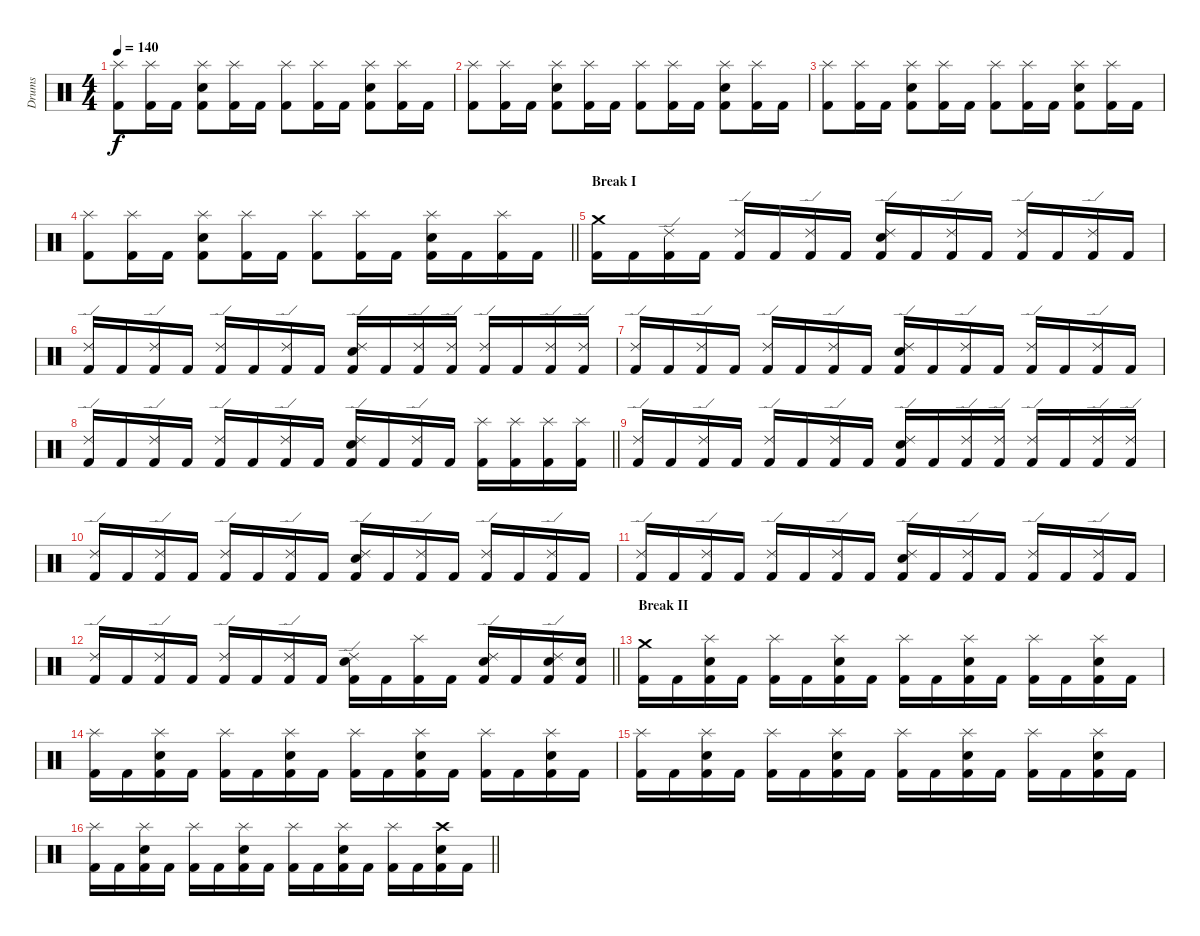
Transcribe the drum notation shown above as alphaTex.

\track ("Drums" "Drums") {instrument percussion}
\staff {score}
\articulation defaults
\ts (4 4)
\section ("" "")
\tempo 140
\clef neutral
\ks c
("Kick (hit) 2" "Splash (hit)").8{dy f} ("Kick (hit) 2" "Splash (hit)").16 "Kick (hit) 2".16 ("Kick (hit) 2" "Snare (hit) 2" "Splash (hit)").8 ("Kick (hit) 2" "Splash (hit)").16 "Kick (hit) 2".16 ("Kick (hit) 2" "Splash (hit)").8 ("Kick (hit) 2" "Splash (hit)").16 "Kick (hit) 2".16 ("Kick (hit) 2" "Snare (hit) 2" "Splash (hit)").8 ("Kick (hit) 2" "Splash (hit)").16 "Kick (hit) 2".16 |
("Kick (hit) 2" "Splash (hit)").8 ("Kick (hit) 2" "Splash (hit)").16 "Kick (hit) 2".16 ("Kick (hit) 2" "Snare (hit) 2" "Splash (hit)").8 ("Kick (hit) 2" "Splash (hit)").16 "Kick (hit) 2".16 ("Kick (hit) 2" "Splash (hit)").8 ("Kick (hit) 2" "Splash (hit)").16 "Kick (hit) 2".16 ("Kick (hit) 2" "Snare (hit) 2" "Splash (hit)").8 ("Kick (hit) 2" "Splash (hit)").16 "Kick (hit) 2".16 |
("Kick (hit) 2" "Splash (hit)").8 ("Kick (hit) 2" "Splash (hit)").16 "Kick (hit) 2".16 ("Kick (hit) 2" "Snare (hit) 2" "Splash (hit)").8 ("Kick (hit) 2" "Splash (hit)").16 "Kick (hit) 2".16 ("Kick (hit) 2" "Splash (hit)").8 ("Kick (hit) 2" "Splash (hit)").16 "Kick (hit) 2".16 ("Kick (hit) 2" "Snare (hit) 2" "Splash (hit)").8 ("Kick (hit) 2" "Splash (hit)").16 "Kick (hit) 2".16 |
\barLineRight lightlight
("Kick (hit) 2" "Splash (hit)").8 ("Kick (hit) 2" "Splash (hit)").16 "Kick (hit) 2".16 ("Kick (hit) 2" "Snare (hit) 2" "Splash (hit)").8 ("Kick (hit) 2" "Splash (hit)").16 "Kick (hit) 2".16 ("Kick (hit) 2" "Splash (hit)").8 ("Kick (hit) 2" "Splash (hit)").16 "Kick (hit) 2".16 ("Kick (hit) 2" "Snare (hit) 2" "Splash (hit)").16 "Kick (hit) 2".16 ("Kick (hit) 2" "Splash (hit)").16 "Kick (hit) 2".16 |
\section ("" "Break I")
("Kick (hit) 2" "Crash medium (hit)").16 "Kick (hit) 2".16 ("Kick (hit) 2" "Ride (edge) 2").16 "Kick (hit) 2".16 ("Kick (hit) 2" "Ride (edge) 2").16 "Kick (hit) 2".16 ("Kick (hit) 2" "Ride (edge) 2").16 "Kick (hit) 2".16 ("Kick (hit) 2" "Snare (hit) 2" "Ride (edge) 2").16 "Kick (hit) 2".16 ("Kick (hit) 2" "Ride (edge) 2").16 "Kick (hit) 2".16 ("Kick (hit) 2" "Ride (edge) 2").16 "Kick (hit) 2".16 ("Kick (hit) 2" "Ride (edge) 2").16 "Kick (hit) 2".16 |
("Kick (hit) 2" "Ride (edge) 2").16 "Kick (hit) 2".16 ("Kick (hit) 2" "Ride (edge) 2").16 "Kick (hit) 2".16 ("Kick (hit) 2" "Ride (edge) 2").16 "Kick (hit) 2".16 ("Kick (hit) 2" "Ride (edge) 2").16 "Kick (hit) 2".16 ("Kick (hit) 2" "Snare (hit) 2" "Ride (edge) 2").16 "Kick (hit) 2".16 ("Kick (hit) 2" "Ride (edge) 2").16 ("Kick (hit) 2" "Ride (edge) 2").16 ("Kick (hit) 2" "Ride (edge) 2").16 "Kick (hit) 2".16 ("Kick (hit) 2" "Ride (edge) 2").16 ("Kick (hit) 2" "Ride (edge) 2").16 |
("Kick (hit) 2" "Ride (edge) 2").16 "Kick (hit) 2".16 ("Kick (hit) 2" "Ride (edge) 2").16 "Kick (hit) 2".16 ("Kick (hit) 2" "Ride (edge) 2").16 "Kick (hit) 2".16 ("Kick (hit) 2" "Ride (edge) 2").16 "Kick (hit) 2".16 ("Kick (hit) 2" "Snare (hit) 2" "Ride (edge) 2").16 "Kick (hit) 2".16 ("Kick (hit) 2" "Ride (edge) 2").16 "Kick (hit) 2".16 ("Kick (hit) 2" "Ride (edge) 2").16 "Kick (hit) 2".16 ("Kick (hit) 2" "Ride (edge) 2").16 "Kick (hit) 2".16 |
\barLineRight lightlight
("Kick (hit) 2" "Ride (edge) 2").16 "Kick (hit) 2".16 ("Kick (hit) 2" "Ride (edge) 2").16 "Kick (hit) 2".16 ("Kick (hit) 2" "Ride (edge) 2").16 "Kick (hit) 2".16 ("Kick (hit) 2" "Ride (edge) 2").16 "Kick (hit) 2".16 ("Kick (hit) 2" "Snare (hit) 2" "Ride (edge) 2").16 "Kick (hit) 2".16 ("Kick (hit) 2" "Ride (edge) 2").16 "Kick (hit) 2".16 ("Kick (hit) 2" "Splash (hit)").16 ("Kick (hit) 2" "Splash (hit)").16 ("Kick (hit) 2" "Splash (hit)").16 ("Kick (hit) 2" "Splash (hit)").16 |
\section ("" "")
("Kick (hit) 2" "Ride (edge) 2").16 "Kick (hit) 2".16 ("Kick (hit) 2" "Ride (edge) 2").16 "Kick (hit) 2".16 ("Kick (hit) 2" "Ride (edge) 2").16 "Kick (hit) 2".16 ("Kick (hit) 2" "Ride (edge) 2").16 "Kick (hit) 2".16 ("Kick (hit) 2" "Snare (hit) 2" "Ride (edge) 2").16 "Kick (hit) 2".16 ("Kick (hit) 2" "Ride (edge) 2").16 ("Kick (hit) 2" "Ride (edge) 2").16 ("Kick (hit) 2" "Ride (edge) 2").16 "Kick (hit) 2".16 ("Kick (hit) 2" "Ride (edge) 2").16 ("Kick (hit) 2" "Ride (edge) 2").16 |
("Kick (hit) 2" "Ride (edge) 2").16 "Kick (hit) 2".16 ("Kick (hit) 2" "Ride (edge) 2").16 "Kick (hit) 2".16 ("Kick (hit) 2" "Ride (edge) 2").16 "Kick (hit) 2".16 ("Kick (hit) 2" "Ride (edge) 2").16 "Kick (hit) 2".16 ("Kick (hit) 2" "Snare (hit) 2" "Ride (edge) 2").16 "Kick (hit) 2".16 ("Kick (hit) 2" "Ride (edge) 2").16 "Kick (hit) 2".16 ("Kick (hit) 2" "Ride (edge) 2").16 "Kick (hit) 2".16 ("Kick (hit) 2" "Ride (edge) 2").16 "Kick (hit) 2".16 |
("Kick (hit) 2" "Ride (edge) 2").16 "Kick (hit) 2".16 ("Kick (hit) 2" "Ride (edge) 2").16 "Kick (hit) 2".16 ("Kick (hit) 2" "Ride (edge) 2").16 "Kick (hit) 2".16 ("Kick (hit) 2" "Ride (edge) 2").16 "Kick (hit) 2".16 ("Kick (hit) 2" "Snare (hit) 2" "Ride (edge) 2").16 "Kick (hit) 2".16 ("Kick (hit) 2" "Ride (edge) 2").16 "Kick (hit) 2".16 ("Kick (hit) 2" "Ride (edge) 2").16 "Kick (hit) 2".16 ("Kick (hit) 2" "Ride (edge) 2").16 "Kick (hit) 2".16 |
\barLineRight lightlight
("Kick (hit) 2" "Ride (edge) 2").16 "Kick (hit) 2".16 ("Kick (hit) 2" "Ride (edge) 2").16 "Kick (hit) 2".16 ("Kick (hit) 2" "Ride (edge) 2").16 "Kick (hit) 2".16 ("Kick (hit) 2" "Ride (edge) 2").16 "Kick (hit) 2".16 ("Kick (hit) 2" "Snare (hit) 2" "Ride (edge) 2").16 "Kick (hit) 2".16 ("Kick (hit) 2" "Splash (hit)").16 "Kick (hit) 2".16 ("Kick (hit) 2" "Snare (hit) 2" "Ride (edge) 2").16 "Kick (hit) 2".16 ("Kick (hit) 2" "Snare (hit) 2" "Ride (edge) 2").16 ("Kick (hit) 2" "Snare (hit) 2").16 |
\section ("" "Break II")
("Kick (hit) 2" "Crash medium (hit)").16 "Kick (hit) 2".16 ("Kick (hit) 2" "Snare (hit) 2" "Splash (hit)").16 "Kick (hit) 2".16 ("Kick (hit) 2" "Splash (hit)").16 "Kick (hit) 2".16 ("Kick (hit) 2" "Snare (hit) 2" "Splash (hit)").16 "Kick (hit) 2".16 ("Kick (hit) 2" "Splash (hit)").16 "Kick (hit) 2".16 ("Kick (hit) 2" "Snare (hit) 2" "Splash (hit)").16 "Kick (hit) 2".16 ("Kick (hit) 2" "Splash (hit)").16 "Kick (hit) 2".16 ("Kick (hit) 2" "Snare (hit) 2" "Splash (hit)").16 "Kick (hit) 2".16 |
("Kick (hit) 2" "Splash (hit)").16 "Kick (hit) 2".16 ("Kick (hit) 2" "Snare (hit) 2" "Splash (hit)").16 "Kick (hit) 2".16 ("Kick (hit) 2" "Splash (hit)").16 "Kick (hit) 2".16 ("Kick (hit) 2" "Snare (hit) 2" "Splash (hit)").16 "Kick (hit) 2".16 ("Kick (hit) 2" "Splash (hit)").16 "Kick (hit) 2".16 ("Kick (hit) 2" "Snare (hit) 2" "Splash (hit)").16 "Kick (hit) 2".16 ("Kick (hit) 2" "Splash (hit)").16 "Kick (hit) 2".16 ("Kick (hit) 2" "Snare (hit) 2" "Splash (hit)").16 "Kick (hit) 2".16 |
("Kick (hit) 2" "Splash (hit)").16 "Kick (hit) 2".16 ("Kick (hit) 2" "Snare (hit) 2" "Splash (hit)").16 "Kick (hit) 2".16 ("Kick (hit) 2" "Splash (hit)").16 "Kick (hit) 2".16 ("Kick (hit) 2" "Snare (hit) 2" "Splash (hit)").16 "Kick (hit) 2".16 ("Kick (hit) 2" "Splash (hit)").16 "Kick (hit) 2".16 ("Kick (hit) 2" "Snare (hit) 2" "Splash (hit)").16 "Kick (hit) 2".16 ("Kick (hit) 2" "Splash (hit)").16 "Kick (hit) 2".16 ("Kick (hit) 2" "Snare (hit) 2" "Splash (hit)").16 "Kick (hit) 2".16 |
\barLineRight lightlight
("Kick (hit) 2" "Splash (hit)").16 "Kick (hit) 2".16 ("Kick (hit) 2" "Snare (hit) 2" "Splash (hit)").16 "Kick (hit) 2".16 ("Kick (hit) 2" "Splash (hit)").16 "Kick (hit) 2".16 ("Kick (hit) 2" "Snare (hit) 2" "Splash (hit)").16 "Kick (hit) 2".16 ("Kick (hit) 2" "Splash (hit)").16 "Kick (hit) 2".16 ("Kick (hit) 2" "Snare (hit) 2" "Splash (hit)").16 "Kick (hit) 2".16 ("Kick (hit) 2" "Splash (hit)").16 "Kick (hit) 2".16 ("Kick (hit) 2" "Snare (hit) 2" "Crash high (hit)").16 "Kick (hit) 2".16
